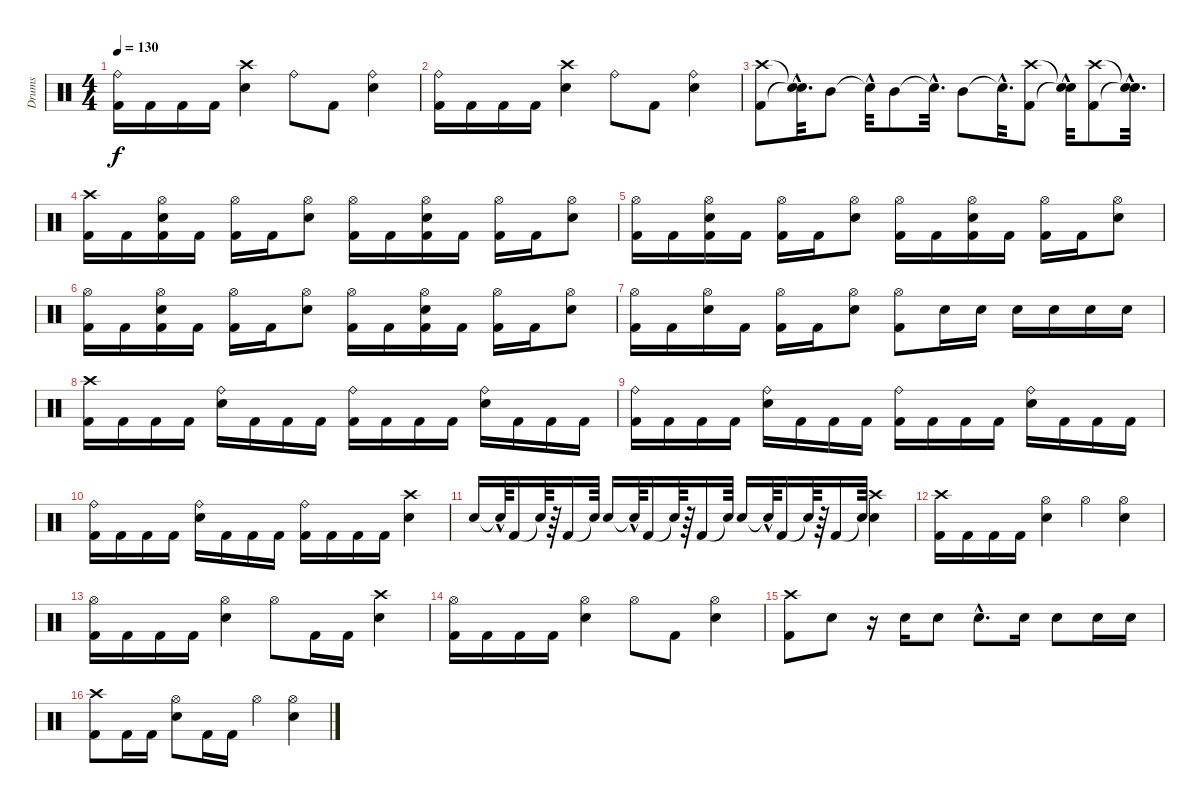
\track ("Drums" "Drums") {instrument percussion}
\staff {score}
\articulation defaults
\ts (4 4)
\tempo 130
\clef neutral
\ks c
("Kick (hit) 2" "Ride (bell)").16{dy f} "Kick (hit) 2".16 "Kick (hit) 2".16 "Kick (hit) 2".16 ("Snare (hit) 2" "Crash high (hit)").4 "Ride (bell)".8 "Kick (hit) 2".8 ("Snare (hit) 2" "Ride (bell)").4 |
("Kick (hit) 2" "Ride (bell)").16 "Kick (hit) 2".16 "Kick (hit) 2".16 "Kick (hit) 2".16 ("Snare (hit) 2" "Crash high (hit)").4 "Ride (bell)".8 "Kick (hit) 2".8 ("Ride (bell)" "Snare (hit) 2").4 |
("Kick (hit) 2" "Crash high (hit)").8 ("Snare (hit)"{hac t} "Snare (hit)"{hac t}).32{d} "Mid Tom (hit)".8 "Snare (hit)"{hac t}.32 "Mid Tom (hit)".8 "Snare (hit)"{hac t}.32{d} "Mid Tom (hit)".8 "Snare (hit)"{hac t}.32{d} ("Crash high (hit)" "Kick (hit) 2").8 ("Snare (hit)"{hac t} "Snare (hit)"{hac t}).32 ("Kick (hit) 2" "Crash high (hit)").8 ("Snare (hit)"{hac t} "Snare (hit)"{hac t}).32{d} |
("Kick (hit) 2" "Crash high (hit)").16 "Kick (hit) 2".16 ("Kick (hit) 2" "Snare (hit) 2" "Hi-Hat (open)").16 "Kick (hit) 2".16 ("Kick (hit) 2" "Hi-Hat (open)").16 "Kick (hit) 2".16 ("Hi-Hat (open)" "Snare (hit) 2").8 ("Hi-Hat (open)" "Kick (hit) 2").16 "Kick (hit) 2".16 ("Hi-Hat (open)" "Snare (hit) 2" "Kick (hit) 2").16 "Kick (hit) 2".16 ("Kick (hit) 2" "Hi-Hat (open)").16 "Kick (hit) 2".16 ("Snare (hit) 2" "Hi-Hat (open)").8 |
("Kick (hit) 2" "Hi-Hat (open)").16 "Kick (hit) 2".16 ("Kick (hit) 2" "Hi-Hat (open)" "Snare (hit) 2").16 "Kick (hit) 2".16 ("Kick (hit) 2" "Hi-Hat (open)").16 "Kick (hit) 2".16 ("Snare (hit) 2" "Hi-Hat (open)").8 ("Hi-Hat (open)" "Kick (hit) 2").16 "Kick (hit) 2".16 ("Kick (hit) 2" "Snare (hit) 2" "Hi-Hat (open)").16 "Kick (hit) 2".16 ("Hi-Hat (open)" "Kick (hit) 2").16 "Kick (hit) 2".16 ("Snare (hit) 2" "Hi-Hat (open)").8 |
("Kick (hit) 2" "Hi-Hat (open)").16 "Kick (hit) 2".16 ("Snare (hit) 2" "Hi-Hat (open)" "Kick (hit) 2").16 "Kick (hit) 2".16 ("Kick (hit) 2" "Hi-Hat (open)").16 "Kick (hit) 2".16 ("Hi-Hat (open)" "Snare (hit) 2").8 ("Hi-Hat (open)" "Kick (hit) 2").16 "Kick (hit) 2".16 ("Hi-Hat (open)" "Snare (hit) 2" "Kick (hit) 2").16 "Kick (hit) 2".16 ("Kick (hit) 2" "Hi-Hat (open)").16 "Kick (hit) 2".16 ("Snare (hit) 2" "Hi-Hat (open)").8 |
("Kick (hit) 2" "Hi-Hat (open)").16 "Kick (hit) 2".16 ("Snare (hit) 2" "Hi-Hat (open)").16 "Kick (hit) 2".16 ("Kick (hit) 2" "Hi-Hat (open)").16 "Kick (hit) 2".16 ("Hi-Hat (open)" "Snare (hit) 2").8 ("Kick (hit) 2" "Hi-Hat (open)").8 "Snare (hit) 2".16 "Snare (hit) 2".16 "Snare (hit) 2".16 "Snare (hit) 2".16 "Snare (hit) 2".16 "Snare (hit) 2".16 |
("Kick (hit) 2" "Crash high (hit)").16 "Kick (hit) 2".16 "Kick (hit) 2".16 "Kick (hit) 2".16 ("Snare (hit) 2" "Ride (bell)").16 "Kick (hit) 2".16 "Kick (hit) 2".16 "Kick (hit) 2".16 ("Kick (hit) 2" "Ride (bell)").16 "Kick (hit) 2".16 "Kick (hit) 2".16 "Kick (hit) 2".16 ("Snare (hit) 2" "Ride (bell)").16 "Kick (hit) 2".16 "Kick (hit) 2".16 "Kick (hit) 2".16 |
("Kick (hit) 2" "Ride (bell)").16 "Kick (hit) 2".16 "Kick (hit) 2".16 "Kick (hit) 2".16 ("Ride (bell)" "Snare (hit) 2").16 "Kick (hit) 2".16 "Kick (hit) 2".16 "Kick (hit) 2".16 ("Kick (hit) 2" "Ride (bell)").16 "Kick (hit) 2".16 "Kick (hit) 2".16 "Kick (hit) 2".16 ("Ride (bell)" "Snare (hit) 2").16 "Kick (hit) 2".16 "Kick (hit) 2".16 "Kick (hit) 2".16 |
("Kick (hit) 2" "Ride (bell)").16 "Kick (hit) 2".16 "Kick (hit) 2".16 "Kick (hit) 2".16 ("Snare (hit) 2" "Ride (bell)").16 "Kick (hit) 2".16 "Kick (hit) 2".16 "Kick (hit) 2".16 ("Kick (hit) 2" "Ride (bell)").16 "Kick (hit) 2".16 "Kick (hit) 2".16 "Kick (hit) 2".16 ("Snare (hit) 2" "Crash high (hit)").4 |
"Snare (hit) 2".16 "Snare (hit)"{hac t}.64 "Kick (hit) 2".16 "Snare (hit)"{t}.64 r.64 "Kick (hit) 2".16 "Snare (hit)"{t}.64 "Snare (hit) 2".16 "Snare (hit)"{hac t}.64 "Kick (hit) 2".16 "Snare (hit)"{t}.64 r.64 "Kick (hit) 2".16 "Snare (hit)"{t}.64 "Snare (hit) 2".16 "Snare (hit)"{hac t}.64 "Kick (hit) 2".16 "Snare (hit)"{t}.64 r.64 "Kick (hit) 2".16 "Snare (hit)"{t}.64 ("Snare (hit) 2" "Crash high (hit)").4 |
("Kick (hit) 2" "Crash high (hit)").16 "Kick (hit) 2".16 "Kick (hit) 2".16 "Kick (hit) 2".16 ("Hi-Hat (open)" "Snare (hit) 2").4 "Hi-Hat (open)".4 ("Snare (hit) 2" "Hi-Hat (open)").4 |
("Hi-Hat (open)" "Kick (hit) 2").16 "Kick (hit) 2".16 "Kick (hit) 2".16 "Kick (hit) 2".16 ("Hi-Hat (open)" "Snare (hit) 2").4 "Hi-Hat (open)".8 "Kick (hit) 2".16 "Kick (hit) 2".16 ("Crash high (hit)" "Snare (hit) 2").4 |
("Kick (hit) 2" "Hi-Hat (open)").16 "Kick (hit) 2".16 "Kick (hit) 2".16 "Kick (hit) 2".16 ("Hi-Hat (open)" "Snare (hit) 2").4 "Hi-Hat (open)".8 "Kick (hit) 2".8 ("Hi-Hat (open)" "Snare (hit) 2").4 |
("Kick (hit) 2" "Crash high (hit)").8 "Snare (hit) 2".8 r.16 "Snare (hit) 2".16 "Snare (hit) 2".8 "Snare (hit) 2"{hac}.8{d} "Snare (hit) 2".16 "Snare (hit) 2".8 "Snare (hit) 2".16 "Snare (hit) 2".16 |
("Crash high (hit)" "Kick (hit) 2").8 "Kick (hit) 2".16 "Kick (hit) 2".16 ("Snare (hit) 2" "Hi-Hat (open)").8 "Kick (hit) 2".16 "Kick (hit) 2".16 "Hi-Hat (open)".4 ("Snare (hit) 2" "Hi-Hat (open)").4
